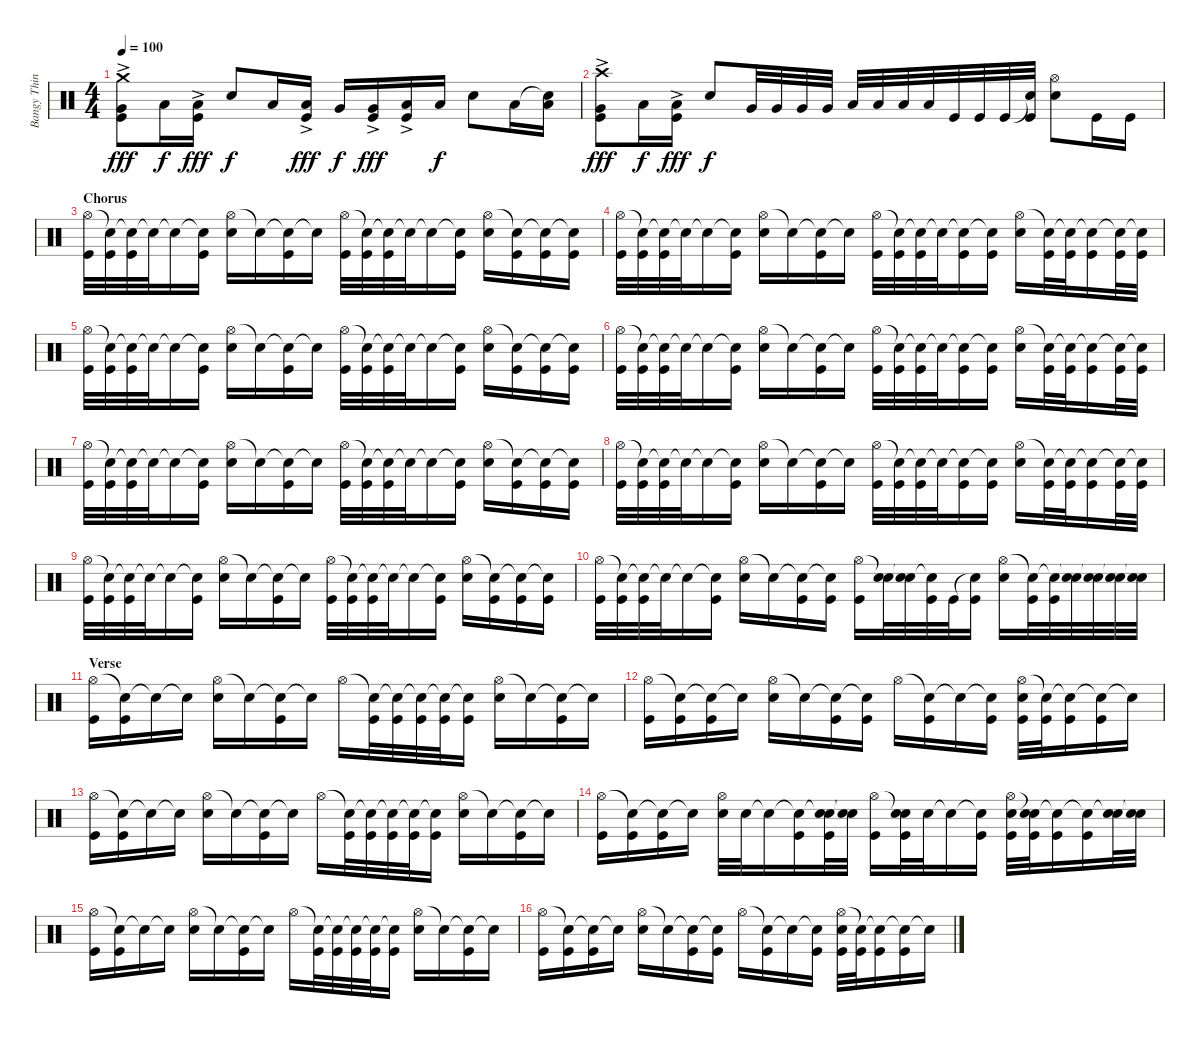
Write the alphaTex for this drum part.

\track ("Bangy Things" "Bangy Thin") {instrument percussion}
\staff {score}
\articulation defaults
\ts (4 4)
\tempo 100
\clef neutral
\ks c
("Crash medium (hit)"{ac} "Very Low Tom (hit)" "Kick (hit)"{ac}).8{dy fff} "Low Floor Tom (hit)".16{dy f} ("Low Floor Tom (hit)" "Kick (hit)"{ac}).16{dy fff} "Electric Snare (hit)".8{dy f} "Low Floor Tom (hit)".16 ("Low Floor Tom (hit)" "Kick (hit)"{ac}).16{dy fff} "Very Low Tom (hit)".16{dy f} ("Very Low Tom (hit)" "Kick (hit)"{ac}).16{dy fff} ("Low Floor Tom (hit)" "Kick (hit)"{ac}).16 "Low Floor Tom (hit)".16{dy f} "Electric Snare (hit)".8 "Low Floor Tom (hit)".16 ("Snare (hit)"{t} "Low Floor Tom (hit)").16 |
("Crash high (hit)"{ac} "Very Low Tom (hit)" "Kick (hit)"{ac}).8{dy fff} "Low Floor Tom (hit)".16{dy f} ("Low Floor Tom (hit)" "Kick (hit)"{ac}).16{dy fff} "Electric Snare (hit)".8{dy f} "Very Low Tom (hit)".32 "Very Low Tom (hit)".32 "Very Low Tom (hit)".32 "Very Low Tom (hit)".32 "Low Floor Tom (hit)".32 "Low Floor Tom (hit)".32 "Low Floor Tom (hit)".32 "Low Floor Tom (hit)".32 "Kick (hit)".32 "Kick (hit)".32 "Kick (hit)".32 ("Snare (hit)"{t} "Kick (hit)").32 ("Hi-Hat (open)" "Electric Snare (hit)").8 "Kick (hit)".16 "Kick (hit)".16 |
\section ("" "Chorus")
("Hi-Hat (open)" "Kick (hit)").32 ("Snare (hit)"{t} "Kick (hit)").32 ("Snare (hit)"{t} "Kick (hit)").32 "Snare (hit)"{t}.32 "Snare (hit)"{t}.16 ("Snare (hit)"{t} "Kick (hit)").16 ("Hi-Hat (open)" "Electric Snare (hit)").16 "Snare (hit)"{t}.16 ("Snare (hit)"{t} "Kick (hit)").16 "Snare (hit)"{t}.16 ("Hi-Hat (open)" "Kick (hit)").32 ("Snare (hit)"{t} "Kick (hit)").32 ("Snare (hit)"{t} "Kick (hit)").32 "Snare (hit)"{t}.32 "Snare (hit)"{t}.16 ("Snare (hit)"{t} "Kick (hit)").16 ("Hi-Hat (open)" "Electric Snare (hit)").16 ("Snare (hit)"{t} "Kick (hit)").16 ("Snare (hit)"{t} "Kick (hit)").16 ("Snare (hit)"{t} "Kick (hit)").16 |
("Hi-Hat (open)" "Kick (hit)").32 ("Snare (hit)"{t} "Kick (hit)").32 ("Snare (hit)"{t} "Kick (hit)").32 "Snare (hit)"{t}.32 "Snare (hit)"{t}.16 ("Snare (hit)"{t} "Kick (hit)").16 ("Hi-Hat (open)" "Electric Snare (hit)").16 "Snare (hit)"{t}.16 ("Snare (hit)"{t} "Kick (hit)").16 "Snare (hit)"{t}.16 ("Hi-Hat (open)" "Kick (hit)").32 ("Snare (hit)"{t} "Kick (hit)").32 ("Snare (hit)"{t} "Kick (hit)").32 "Snare (hit)"{t}.32 ("Snare (hit)"{t} "Kick (hit)").16 ("Snare (hit)"{t} "Kick (hit)").16 ("Hi-Hat (open)" "Electric Snare (hit)").16 ("Snare (hit)"{t} "Kick (hit)").32 ("Snare (hit)"{t} "Kick (hit)").32 ("Snare (hit)"{t} "Kick (hit)").16 ("Snare (hit)"{t} "Kick (hit)").32 ("Snare (hit)"{t} "Kick (hit)").32 |
("Hi-Hat (open)" "Kick (hit)").32 ("Snare (hit)"{t} "Kick (hit)").32 ("Snare (hit)"{t} "Kick (hit)").32 "Snare (hit)"{t}.32 "Snare (hit)"{t}.16 ("Snare (hit)"{t} "Kick (hit)").16 ("Hi-Hat (open)" "Electric Snare (hit)").16 "Snare (hit)"{t}.16 ("Snare (hit)"{t} "Kick (hit)").16 "Snare (hit)"{t}.16 ("Hi-Hat (open)" "Kick (hit)").32 ("Snare (hit)"{t} "Kick (hit)").32 ("Snare (hit)"{t} "Kick (hit)").32 "Snare (hit)"{t}.32 "Snare (hit)"{t}.16 ("Snare (hit)"{t} "Kick (hit)").16 ("Hi-Hat (open)" "Electric Snare (hit)").16 ("Snare (hit)"{t} "Kick (hit)").16 ("Snare (hit)"{t} "Kick (hit)").16 ("Snare (hit)"{t} "Kick (hit)").16 |
("Hi-Hat (open)" "Kick (hit)").32 ("Snare (hit)"{t} "Kick (hit)").32 ("Snare (hit)"{t} "Kick (hit)").32 "Snare (hit)"{t}.32 "Snare (hit)"{t}.16 ("Snare (hit)"{t} "Kick (hit)").16 ("Hi-Hat (open)" "Electric Snare (hit)").16 "Snare (hit)"{t}.16 ("Snare (hit)"{t} "Kick (hit)").16 "Snare (hit)"{t}.16 ("Hi-Hat (open)" "Kick (hit)").32 ("Snare (hit)"{t} "Kick (hit)").32 ("Snare (hit)"{t} "Kick (hit)").32 "Snare (hit)"{t}.32 ("Snare (hit)"{t} "Kick (hit)").16 ("Snare (hit)"{t} "Kick (hit)").16 ("Hi-Hat (open)" "Electric Snare (hit)").16 ("Snare (hit)"{t} "Kick (hit)").32 ("Snare (hit)"{t} "Kick (hit)").32 ("Snare (hit)"{t} "Kick (hit)").16 ("Snare (hit)"{t} "Kick (hit)").32 ("Snare (hit)"{t} "Kick (hit)").32 |
("Hi-Hat (open)" "Kick (hit)").32 ("Snare (hit)"{t} "Kick (hit)").32 ("Snare (hit)"{t} "Kick (hit)").32 "Snare (hit)"{t}.32 "Snare (hit)"{t}.16 ("Snare (hit)"{t} "Kick (hit)").16 ("Hi-Hat (open)" "Electric Snare (hit)").16 "Snare (hit)"{t}.16 ("Snare (hit)"{t} "Kick (hit)").16 "Snare (hit)"{t}.16 ("Hi-Hat (open)" "Kick (hit)").32 ("Snare (hit)"{t} "Kick (hit)").32 ("Snare (hit)"{t} "Kick (hit)").32 "Snare (hit)"{t}.32 "Snare (hit)"{t}.16 ("Snare (hit)"{t} "Kick (hit)").16 ("Hi-Hat (open)" "Electric Snare (hit)").16 ("Snare (hit)"{t} "Kick (hit)").16 ("Snare (hit)"{t} "Kick (hit)").16 ("Snare (hit)"{t} "Kick (hit)").16 |
("Hi-Hat (open)" "Kick (hit)").32 ("Snare (hit)"{t} "Kick (hit)").32 ("Snare (hit)"{t} "Kick (hit)").32 "Snare (hit)"{t}.32 "Snare (hit)"{t}.16 ("Snare (hit)"{t} "Kick (hit)").16 ("Hi-Hat (open)" "Electric Snare (hit)").16 "Snare (hit)"{t}.16 ("Snare (hit)"{t} "Kick (hit)").16 "Snare (hit)"{t}.16 ("Hi-Hat (open)" "Kick (hit)").32 ("Snare (hit)"{t} "Kick (hit)").32 ("Snare (hit)"{t} "Kick (hit)").32 "Snare (hit)"{t}.32 ("Snare (hit)"{t} "Kick (hit)").16 ("Snare (hit)"{t} "Kick (hit)").16 ("Hi-Hat (open)" "Electric Snare (hit)").16 ("Snare (hit)"{t} "Kick (hit)").32 ("Snare (hit)"{t} "Kick (hit)").32 ("Snare (hit)"{t} "Kick (hit)").16 ("Snare (hit)"{t} "Kick (hit)").32 ("Snare (hit)"{t} "Kick (hit)").32 |
("Hi-Hat (open)" "Kick (hit)").32 ("Snare (hit)"{t} "Kick (hit)").32 ("Snare (hit)"{t} "Kick (hit)").32 "Snare (hit)"{t}.32 "Snare (hit)"{t}.16 ("Snare (hit)"{t} "Kick (hit)").16 ("Hi-Hat (open)" "Electric Snare (hit)").16 "Snare (hit)"{t}.16 ("Snare (hit)"{t} "Kick (hit)").16 "Snare (hit)"{t}.16 ("Hi-Hat (open)" "Kick (hit)").32 ("Snare (hit)"{t} "Kick (hit)").32 ("Snare (hit)"{t} "Kick (hit)").32 "Snare (hit)"{t}.32 "Snare (hit)"{t}.16 ("Snare (hit)"{t} "Kick (hit)").16 ("Hi-Hat (open)" "Electric Snare (hit)").16 ("Snare (hit)"{t} "Kick (hit)").16 ("Snare (hit)"{t} "Kick (hit)").16 ("Snare (hit)"{t} "Kick (hit)").16 |
("Hi-Hat (open)" "Kick (hit)").32 ("Snare (hit)"{t} "Kick (hit)").32 ("Snare (hit)"{t} "Kick (hit)").32 "Snare (hit)"{t}.32 "Snare (hit)"{t}.16 ("Snare (hit)"{t} "Kick (hit)").16 ("Hi-Hat (open)" "Electric Snare (hit)").16 "Snare (hit)"{t}.16 ("Snare (hit)"{t} "Kick (hit)").16 ("Snare (hit)"{t} "Kick (hit)").16 ("Hi-Hat (open)" "Kick (hit)").16 ("Snare (hit)"{t} "Electric Snare (hit)").32 ("Snare (hit)"{t} "Electric Snare (hit)").32 ("Snare (hit)"{t} "Kick (hit)").32 "Kick (hit)".32 ("Snare (hit)"{t} "Kick (hit)").16 ("Hi-Hat (open)" "Electric Snare (hit)").16 ("Snare (hit)"{t} "Kick (hit)").32 ("Snare (hit)"{t} "Kick (hit)").32 ("Snare (hit)"{t} "Electric Snare (hit)").32 ("Snare (hit)"{t} "Electric Snare (hit)").32 ("Snare (hit)"{t} "Electric Snare (hit)").32 ("Snare (hit)"{t} "Electric Snare (hit)").32 |
\section ("" "Verse")
("Hi-Hat (open)" "Kick (hit)").16 ("Snare (hit)"{t} "Kick (hit)").16 "Snare (hit)"{t}.16 "Snare (hit)"{t}.16 ("Hi-Hat (open)" "Electric Snare (hit)").16 "Snare (hit)"{t}.16 ("Snare (hit)"{t} "Kick (hit)").16 "Snare (hit)"{t}.16 "Hi-Hat (open)".16 ("Snare (hit)"{t} "Kick (hit)").32 ("Snare (hit)"{t} "Kick (hit)").32 ("Snare (hit)"{t} "Kick (hit)").32 ("Snare (hit)"{t} "Kick (hit)").32 ("Snare (hit)"{t} "Kick (hit)").16 ("Hi-Hat (open)" "Electric Snare (hit)").16 "Snare (hit)"{t}.16 ("Snare (hit)"{t} "Kick (hit)").16 "Snare (hit)"{t}.16 |
("Hi-Hat (open)" "Kick (hit)").16 ("Snare (hit)"{t} "Kick (hit)").16 ("Snare (hit)"{t} "Kick (hit)").16 "Snare (hit)"{t}.16 ("Hi-Hat (open)" "Electric Snare (hit)").16 "Snare (hit)"{t}.16 ("Snare (hit)"{t} "Kick (hit)").16 ("Snare (hit)"{t} "Kick (hit)").16 "Hi-Hat (open)".16 ("Snare (hit)"{t} "Kick (hit)").16 "Snare (hit)"{t}.16 ("Snare (hit)"{t} "Kick (hit)").16 ("Hi-Hat (open)" "Electric Snare (hit)" "Kick (hit)").32 ("Snare (hit)"{t} "Kick (hit)").32 ("Snare (hit)"{t} "Kick (hit)").16 ("Snare (hit)"{t} "Kick (hit)").16 "Snare (hit)"{t}.16 |
("Hi-Hat (open)" "Kick (hit)").16 ("Snare (hit)"{t} "Kick (hit)").16 "Snare (hit)"{t}.16 "Snare (hit)"{t}.16 ("Hi-Hat (open)" "Electric Snare (hit)").16 "Snare (hit)"{t}.16 ("Snare (hit)"{t} "Kick (hit)").16 "Snare (hit)"{t}.16 "Hi-Hat (open)".16 ("Snare (hit)"{t} "Kick (hit)").32 ("Snare (hit)"{t} "Kick (hit)").32 ("Snare (hit)"{t} "Kick (hit)").32 ("Snare (hit)"{t} "Kick (hit)").32 ("Snare (hit)"{t} "Kick (hit)").16 ("Hi-Hat (open)" "Electric Snare (hit)").16 "Snare (hit)"{t}.16 ("Snare (hit)"{t} "Kick (hit)").16 "Snare (hit)"{t}.16 |
("Hi-Hat (open)" "Kick (hit)").16 ("Snare (hit)"{t} "Kick (hit)").16 ("Snare (hit)"{t} "Kick (hit)").16 "Snare (hit)"{t}.16 ("Hi-Hat (open)" "Electric Snare (hit)").32 "Electric Snare (hit)".32 "Snare (hit)"{t}.16 ("Snare (hit)"{t} "Kick (hit)").16 ("Snare (hit)"{t} "Electric Snare (hit)" "Kick (hit)").32 ("Snare (hit)"{t} "Electric Snare (hit)").32 ("Hi-Hat (open)" "Kick (hit)").16 ("Snare (hit)"{t} "Electric Snare (hit)" "Kick (hit)").32 "Electric Snare (hit)".32 "Snare (hit)"{t}.16 ("Snare (hit)"{t} "Kick (hit)").16 ("Hi-Hat (open)" "Electric Snare (hit)" "Kick (hit)").32 ("Snare (hit)"{t} "Electric Snare (hit)" "Kick (hit)").32 ("Snare (hit)"{t} "Kick (hit)").16 ("Snare (hit)"{t} "Kick (hit)").16 ("Snare (hit)"{t} "Electric Snare (hit)").32 ("Snare (hit)"{t} "Electric Snare (hit)").32 |
("Hi-Hat (open)" "Kick (hit)").16 ("Snare (hit)"{t} "Kick (hit)").16 "Snare (hit)"{t}.16 "Snare (hit)"{t}.16 ("Hi-Hat (open)" "Electric Snare (hit)").16 "Snare (hit)"{t}.16 ("Snare (hit)"{t} "Kick (hit)").16 "Snare (hit)"{t}.16 "Hi-Hat (open)".16 ("Snare (hit)"{t} "Kick (hit)").32 ("Snare (hit)"{t} "Kick (hit)").32 ("Snare (hit)"{t} "Kick (hit)").32 ("Snare (hit)"{t} "Kick (hit)").32 ("Snare (hit)"{t} "Kick (hit)").16 ("Hi-Hat (open)" "Electric Snare (hit)").16 "Snare (hit)"{t}.16 ("Snare (hit)"{t} "Kick (hit)").16 "Snare (hit)"{t}.16 |
("Hi-Hat (open)" "Kick (hit)").16 ("Snare (hit)"{t} "Kick (hit)").16 ("Snare (hit)"{t} "Kick (hit)").16 "Snare (hit)"{t}.16 ("Hi-Hat (open)" "Electric Snare (hit)").16 "Snare (hit)"{t}.16 ("Snare (hit)"{t} "Kick (hit)").16 ("Snare (hit)"{t} "Kick (hit)").16 "Hi-Hat (open)".16 ("Snare (hit)"{t} "Kick (hit)").16 "Snare (hit)"{t}.16 ("Snare (hit)"{t} "Kick (hit)").16 ("Hi-Hat (open)" "Electric Snare (hit)" "Kick (hit)").32 ("Snare (hit)"{t} "Kick (hit)").32 ("Snare (hit)"{t} "Kick (hit)").16 ("Snare (hit)"{t} "Kick (hit)").16 "Snare (hit)"{t}.16
